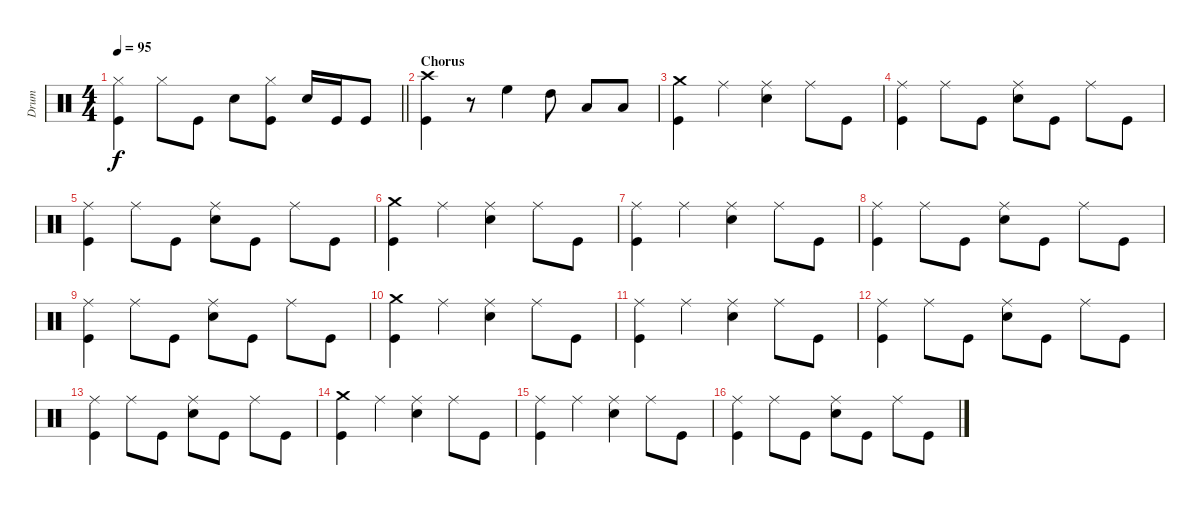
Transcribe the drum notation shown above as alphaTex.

\track ("Drum" "Drum") {instrument percussion}
\staff {score}
\articulation defaults
\ts (4 4)
\tempo 95
\clef neutral
\barLineRight lightlight
\ks c
("Hi-Hat (closed)" "Kick (hit)").4{dy f} "Hi-Hat (closed)".8 "Kick (hit)".8 "Electric Snare (hit)".8 ("Hi-Hat (closed)" "Kick (hit)").8 "Electric Snare (hit)".16 "Kick (hit)".16 "Kick (hit)".8 |
\section ("" "Chorus")
("Crash high (hit)" "Kick (hit)").4 r.8 "High Floor Tom (hit)".4 "High Tom (hit)".8 "Low Tom (hit)".8 "Low Floor Tom (hit)".8 |
("Crash medium (hit)" "Kick (hit)").4 "Ride (middle)".4 ("Ride (middle)" "Electric Snare (hit)").4 "Ride (middle)".8 "Kick (hit)".8 |
("Ride (middle)" "Kick (hit)").4 "Ride (middle)".8 "Kick (hit)".8 ("Ride (middle)" "Electric Snare (hit)").8 "Kick (hit)".8 "Ride (middle)".8 "Kick (hit)".8 |
("Ride (middle)" "Kick (hit)").4 "Ride (middle)".8 "Kick (hit)".8 ("Ride (middle)" "Electric Snare (hit)").8 "Kick (hit)".8 "Ride (middle)".8 "Kick (hit)".8 |
("Crash medium (hit)" "Kick (hit)").4 "Ride (middle)".4 ("Ride (middle)" "Electric Snare (hit)").4 "Ride (middle)".8 "Kick (hit)".8 |
("Ride (middle)" "Kick (hit)").4 "Ride (middle)".4 ("Ride (middle)" "Electric Snare (hit)").4 "Ride (middle)".8 "Kick (hit)".8 |
("Ride (middle)" "Kick (hit)").4 "Ride (middle)".8 "Kick (hit)".8 ("Ride (middle)" "Electric Snare (hit)").8 "Kick (hit)".8 "Ride (middle)".8 "Kick (hit)".8 |
("Ride (middle)" "Kick (hit)").4 "Ride (middle)".8 "Kick (hit)".8 ("Ride (middle)" "Electric Snare (hit)").8 "Kick (hit)".8 "Ride (middle)".8 "Kick (hit)".8 |
("Crash medium (hit)" "Kick (hit)").4 "Ride (middle)".4 ("Ride (middle)" "Electric Snare (hit)").4 "Ride (middle)".8 "Kick (hit)".8 |
("Ride (middle)" "Kick (hit)").4 "Ride (middle)".4 ("Ride (middle)" "Electric Snare (hit)").4 "Ride (middle)".8 "Kick (hit)".8 |
("Ride (middle)" "Kick (hit)").4 "Ride (middle)".8 "Kick (hit)".8 ("Ride (middle)" "Electric Snare (hit)").8 "Kick (hit)".8 "Ride (middle)".8 "Kick (hit)".8 |
("Ride (middle)" "Kick (hit)").4 "Ride (middle)".8 "Kick (hit)".8 ("Ride (middle)" "Electric Snare (hit)").8 "Kick (hit)".8 "Ride (middle)".8 "Kick (hit)".8 |
("Crash medium (hit)" "Kick (hit)").4 "Ride (middle)".4 ("Ride (middle)" "Electric Snare (hit)").4 "Ride (middle)".8 "Kick (hit)".8 |
("Ride (middle)" "Kick (hit)").4 "Ride (middle)".4 ("Ride (middle)" "Electric Snare (hit)").4 "Ride (middle)".8 "Kick (hit)".8 |
("Ride (middle)" "Kick (hit)").4 "Ride (middle)".8 "Kick (hit)".8 ("Ride (middle)" "Electric Snare (hit)").8 "Kick (hit)".8 "Ride (middle)".8 "Kick (hit)".8
